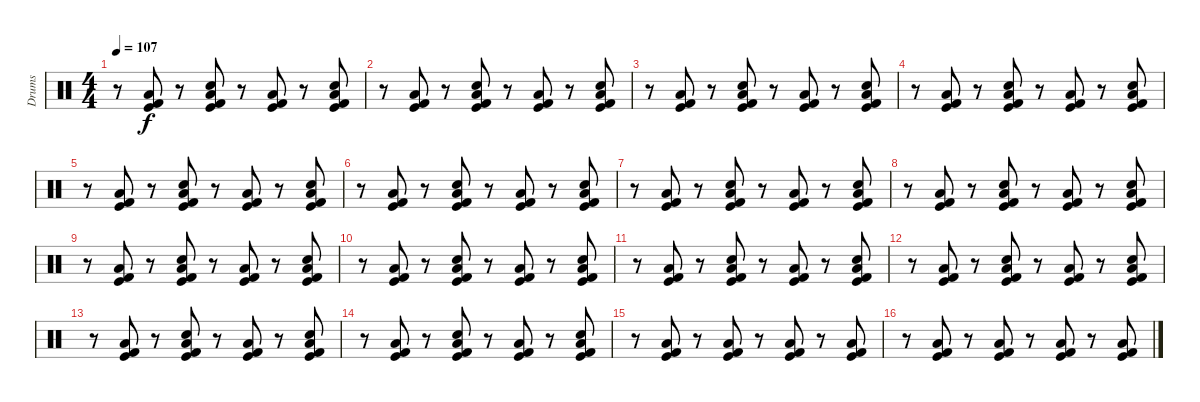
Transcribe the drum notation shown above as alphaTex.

\track ("Drums" "Drums") {instrument percussion}
\staff {score}
\articulation defaults
\ts (4 4)
\tempo 107
\clef neutral
\ks c
r.8{dy f} ("Kick (hit)" "Low Floor Tom (hit)" "Kick (hit) 2").8 r.8 ("Electric Snare (hit)" "Kick (hit)" "Low Floor Tom (hit)" "Kick (hit) 2").8 r.8 ("Kick (hit)" "Low Floor Tom (hit)" "Kick (hit) 2").8 r.8 ("Electric Snare (hit)" "Kick (hit)" "Low Floor Tom (hit)" "Kick (hit) 2").8 |
r.8 ("Kick (hit)" "Low Floor Tom (hit)" "Kick (hit) 2").8 r.8 ("Electric Snare (hit)" "Kick (hit)" "Low Floor Tom (hit)" "Kick (hit) 2").8 r.8 ("Kick (hit)" "Low Floor Tom (hit)" "Kick (hit) 2").8 r.8 ("Electric Snare (hit)" "Kick (hit)" "Low Floor Tom (hit)" "Kick (hit) 2").8 |
r.8 ("Kick (hit)" "Low Floor Tom (hit)" "Kick (hit) 2").8 r.8 ("Electric Snare (hit)" "Kick (hit)" "Low Floor Tom (hit)" "Kick (hit) 2").8 r.8 ("Kick (hit)" "Low Floor Tom (hit)" "Kick (hit) 2").8 r.8 ("Electric Snare (hit)" "Kick (hit)" "Low Floor Tom (hit)" "Kick (hit) 2").8 |
r.8 ("Kick (hit)" "Low Floor Tom (hit)" "Kick (hit) 2").8 r.8 ("Electric Snare (hit)" "Kick (hit)" "Low Floor Tom (hit)" "Kick (hit) 2").8 r.8 ("Kick (hit)" "Low Floor Tom (hit)" "Kick (hit) 2").8 r.8 ("Electric Snare (hit)" "Kick (hit)" "Low Floor Tom (hit)" "Kick (hit) 2").8 |
r.8 ("Kick (hit)" "Low Floor Tom (hit)" "Kick (hit) 2").8 r.8 ("Electric Snare (hit)" "Kick (hit)" "Low Floor Tom (hit)" "Kick (hit) 2").8 r.8 ("Kick (hit)" "Low Floor Tom (hit)" "Kick (hit) 2").8 r.8 ("Electric Snare (hit)" "Kick (hit)" "Low Floor Tom (hit)" "Kick (hit) 2").8 |
r.8 ("Kick (hit)" "Low Floor Tom (hit)" "Kick (hit) 2").8 r.8 ("Electric Snare (hit)" "Kick (hit)" "Low Floor Tom (hit)" "Kick (hit) 2").8 r.8 ("Kick (hit)" "Low Floor Tom (hit)" "Kick (hit) 2").8 r.8 ("Electric Snare (hit)" "Kick (hit)" "Low Floor Tom (hit)" "Kick (hit) 2").8 |
r.8 ("Kick (hit)" "Low Floor Tom (hit)" "Kick (hit) 2").8 r.8 ("Electric Snare (hit)" "Kick (hit)" "Low Floor Tom (hit)" "Kick (hit) 2").8 r.8 ("Kick (hit)" "Low Floor Tom (hit)" "Kick (hit) 2").8 r.8 ("Electric Snare (hit)" "Kick (hit)" "Low Floor Tom (hit)" "Kick (hit) 2").8 |
r.8 ("Kick (hit)" "Low Floor Tom (hit)" "Kick (hit) 2").8 r.8 ("Electric Snare (hit)" "Kick (hit)" "Low Floor Tom (hit)" "Kick (hit) 2").8 r.8 ("Kick (hit)" "Low Floor Tom (hit)" "Kick (hit) 2").8 r.8 ("Electric Snare (hit)" "Kick (hit)" "Low Floor Tom (hit)" "Kick (hit) 2").8 |
r.8 ("Kick (hit)" "Low Floor Tom (hit)" "Kick (hit) 2").8 r.8 ("Electric Snare (hit)" "Kick (hit)" "Low Floor Tom (hit)" "Kick (hit) 2").8 r.8 ("Kick (hit)" "Low Floor Tom (hit)" "Kick (hit) 2").8 r.8 ("Electric Snare (hit)" "Kick (hit)" "Low Floor Tom (hit)" "Kick (hit) 2").8 |
r.8 ("Kick (hit)" "Low Floor Tom (hit)" "Kick (hit) 2").8 r.8 ("Electric Snare (hit)" "Kick (hit)" "Low Floor Tom (hit)" "Kick (hit) 2").8 r.8 ("Kick (hit)" "Low Floor Tom (hit)" "Kick (hit) 2").8 r.8 ("Electric Snare (hit)" "Kick (hit)" "Low Floor Tom (hit)" "Kick (hit) 2").8 |
r.8 ("Kick (hit)" "Low Floor Tom (hit)" "Kick (hit) 2").8 r.8 ("Electric Snare (hit)" "Kick (hit)" "Low Floor Tom (hit)" "Kick (hit) 2").8 r.8 ("Kick (hit)" "Low Floor Tom (hit)" "Kick (hit) 2").8 r.8 ("Electric Snare (hit)" "Kick (hit)" "Low Floor Tom (hit)" "Kick (hit) 2").8 |
r.8 ("Kick (hit)" "Low Floor Tom (hit)" "Kick (hit) 2").8 r.8 ("Electric Snare (hit)" "Kick (hit)" "Low Floor Tom (hit)" "Kick (hit) 2").8 r.8 ("Kick (hit)" "Low Floor Tom (hit)" "Kick (hit) 2").8 r.8 ("Electric Snare (hit)" "Kick (hit)" "Low Floor Tom (hit)" "Kick (hit) 2").8 |
r.8 ("Kick (hit)" "Low Floor Tom (hit)" "Kick (hit) 2").8 r.8 ("Electric Snare (hit)" "Kick (hit)" "Low Floor Tom (hit)" "Kick (hit) 2").8 r.8 ("Kick (hit)" "Low Floor Tom (hit)" "Kick (hit) 2").8 r.8 ("Electric Snare (hit)" "Kick (hit)" "Low Floor Tom (hit)" "Kick (hit) 2").8 |
r.8 ("Kick (hit)" "Low Floor Tom (hit)" "Kick (hit) 2").8 r.8 ("Electric Snare (hit)" "Kick (hit)" "Low Floor Tom (hit)" "Kick (hit) 2").8 r.8 ("Kick (hit)" "Low Floor Tom (hit)" "Kick (hit) 2").8 r.8 ("Electric Snare (hit)" "Kick (hit)" "Low Floor Tom (hit)" "Kick (hit) 2").8 |
r.8 ("Kick (hit)" "Low Floor Tom (hit)" "Kick (hit) 2").8 r.8 ("Kick (hit)" "Low Floor Tom (hit)" "Kick (hit) 2").8 r.8 ("Kick (hit)" "Low Floor Tom (hit)" "Kick (hit) 2").8 r.8 ("Kick (hit)" "Low Floor Tom (hit)" "Kick (hit) 2").8 |
r.8 ("Kick (hit)" "Low Floor Tom (hit)" "Kick (hit) 2").8 r.8 ("Kick (hit)" "Low Floor Tom (hit)" "Kick (hit) 2").8 r.8 ("Kick (hit)" "Low Floor Tom (hit)" "Kick (hit) 2").8 r.8 ("Kick (hit)" "Low Floor Tom (hit)" "Kick (hit) 2").8
